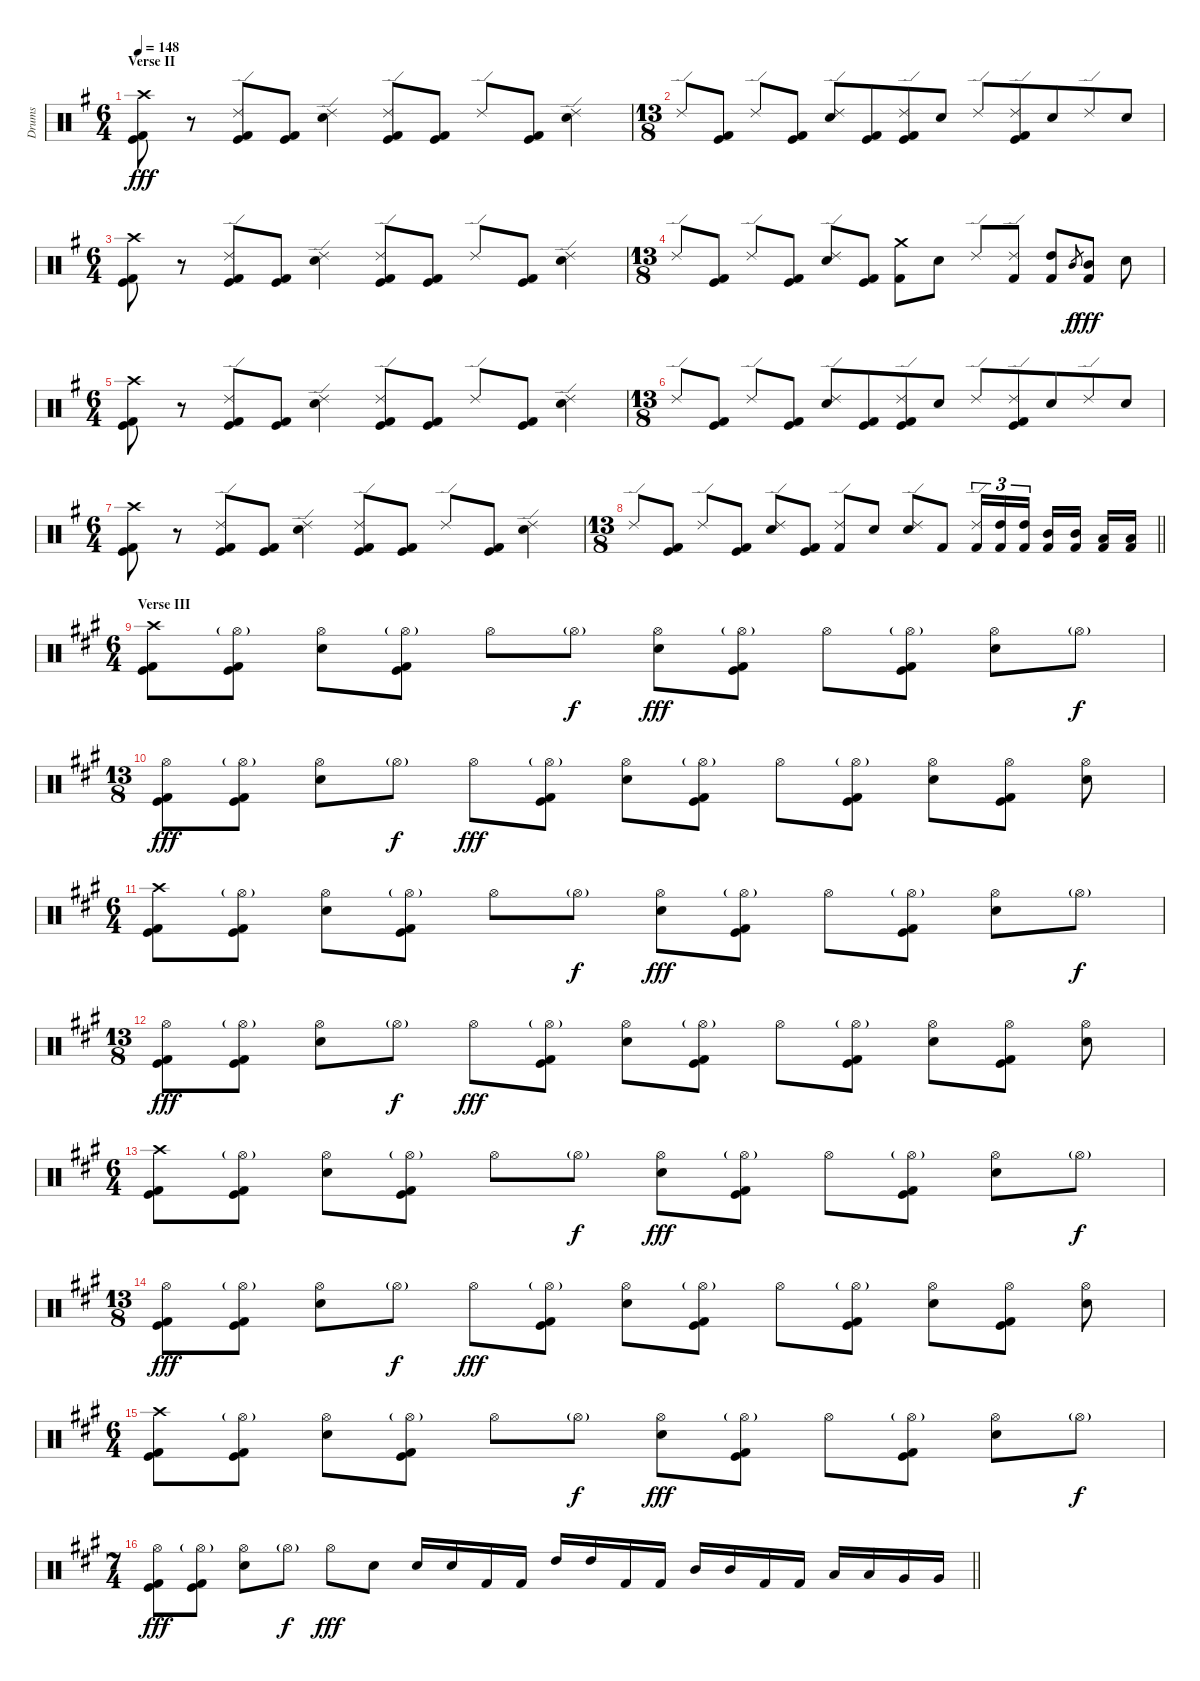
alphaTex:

\track ("Drums" "Drums") {instrument percussion}
\staff {score}
\articulation defaults
\ts (6 4)
\section ("" "Verse II")
\tempo 148
\clef neutral
\ks g
("Crash high (hit)" "Kick (hit)" "Kick (hit) 2").8{dy fff} r.8 ("Ride (edge) 2" "Kick (hit)" "Kick (hit) 2").8 ("Kick (hit)" "Kick (hit) 2").8 ("Ride (edge) 2" "Electric Snare (hit)").4 ("Ride (edge) 2" "Kick (hit)" "Kick (hit) 2").8 ("Kick (hit)" "Kick (hit) 2").8 "Ride (edge) 2".8 ("Kick (hit)" "Kick (hit) 2").8 ("Ride (edge) 2" "Electric Snare (hit)").4 |
\ts (13 8)
"Ride (edge) 2".8 ("Kick (hit)" "Kick (hit) 2").8 "Ride (edge) 2".8 ("Kick (hit)" "Kick (hit) 2").8 ("Ride (edge) 2" "Electric Snare (hit)").8 ("Kick (hit)" "Kick (hit) 2").8{beam merge} ("Ride (edge) 2" "Kick (hit)" "Kick (hit) 2").8{beam merge} "Electric Snare (hit)".8 "Ride (edge) 2".8{beam merge} ("Ride (edge) 2" "Kick (hit)" "Kick (hit) 2").8{beam merge} "Electric Snare (hit)".8{beam merge} "Ride (edge) 2".8{beam merge} "Electric Snare (hit)".8 |
\ts (6 4)
("Crash high (hit)" "Kick (hit)" "Kick (hit) 2").8 r.8 ("Ride (edge) 2" "Kick (hit)" "Kick (hit) 2").8 ("Kick (hit)" "Kick (hit) 2").8 ("Ride (edge) 2" "Electric Snare (hit)").4 ("Ride (edge) 2" "Kick (hit)" "Kick (hit) 2").8 ("Kick (hit)" "Kick (hit) 2").8 "Ride (edge) 2".8 ("Kick (hit)" "Kick (hit) 2").8 ("Ride (edge) 2" "Electric Snare (hit)").4 |
\ts (13 8)
"Ride (edge) 2".8 ("Kick (hit)" "Kick (hit) 2").8 "Ride (edge) 2".8 ("Kick (hit)" "Kick (hit) 2").8 ("Ride (edge) 2" "Electric Snare (hit)").8 ("Kick (hit)" "Kick (hit) 2").8 ("Crash medium (hit)" "Kick (hit) 2").8 "Electric Snare (hit)".8 "Ride (edge) 2".8 ("Ride (edge) 2" "Kick (hit) 2").8 ("High Tom (hit)" "Kick (hit) 2").8 "Mid Tom (hit)".8{gr dy f} ("Mid Tom (hit)" "Kick (hit) 2").8{dy fff} "Electric Snare (hit)".8 |
\ts (6 4)
("Crash high (hit)" "Kick (hit)" "Kick (hit) 2").8 r.8 ("Ride (edge) 2" "Kick (hit)" "Kick (hit) 2").8 ("Kick (hit)" "Kick (hit) 2").8 ("Ride (edge) 2" "Electric Snare (hit)").4 ("Ride (edge) 2" "Kick (hit)" "Kick (hit) 2").8 ("Kick (hit)" "Kick (hit) 2").8 "Ride (edge) 2".8 ("Kick (hit)" "Kick (hit) 2").8 ("Ride (edge) 2" "Electric Snare (hit)").4 |
\ts (13 8)
"Ride (edge) 2".8 ("Kick (hit)" "Kick (hit) 2").8 "Ride (edge) 2".8 ("Kick (hit)" "Kick (hit) 2").8 ("Ride (edge) 2" "Electric Snare (hit)").8 ("Kick (hit)" "Kick (hit) 2").8{beam merge} ("Ride (edge) 2" "Kick (hit)" "Kick (hit) 2").8{beam merge} "Electric Snare (hit)".8 "Ride (edge) 2".8{beam merge} ("Ride (edge) 2" "Kick (hit)" "Kick (hit) 2").8{beam merge} "Electric Snare (hit)".8{beam merge} "Ride (edge) 2".8{beam merge} "Electric Snare (hit)".8 |
\ts (6 4)
("Crash high (hit)" "Kick (hit)" "Kick (hit) 2").8 r.8 ("Ride (edge) 2" "Kick (hit)" "Kick (hit) 2").8 ("Kick (hit)" "Kick (hit) 2").8 ("Ride (edge) 2" "Electric Snare (hit)").4 ("Ride (edge) 2" "Kick (hit)" "Kick (hit) 2").8 ("Kick (hit)" "Kick (hit) 2").8 "Ride (edge) 2".8 ("Kick (hit)" "Kick (hit) 2").8 ("Ride (edge) 2" "Electric Snare (hit)").4 |
\ts (13 8)
\barLineRight lightlight "Ride (edge) 2".8
("Kick (hit)" "Kick (hit) 2").8 "Ride (edge) 2".8 ("Kick (hit)" "Kick (hit) 2").8 ("Ride (edge) 2" "Electric Snare (hit)").8 ("Kick (hit)" "Kick (hit) 2").8 ("Ride (edge) 2" "Kick (hit) 2").8 "Electric Snare (hit)".8 ("Ride (edge) 2" "Electric Snare (hit)").8 "Kick (hit) 2".8 ("Ride (edge) 2" "Kick (hit) 2").16{tu (3 2)} ("High Tom (hit)" "Kick (hit) 2").16{tu (3 2)} ("High Tom (hit)" "Kick (hit) 2").16{tu (3 2)} ("Mid Tom (hit)" "Kick (hit) 2").16 ("Mid Tom (hit)" "Kick (hit) 2").16 ("Low Tom (hit)" "Kick (hit) 2").16 ("Low Tom (hit)" "Kick (hit) 2").16 |
\ts (6 4)
\section ("" "Verse III")
\ks a
("Crash high (hit)" "Kick (hit)" "Kick (hit) 2").8 ("Hi-Hat (open)"{g} "Kick (hit)" "Kick (hit) 2").8 ("Hi-Hat (open)" "Electric Snare (hit)").8 ("Hi-Hat (open)"{g} "Kick (hit)" "Kick (hit) 2").8 "Hi-Hat (open)".8 "Hi-Hat (open)"{g}.8{dy f} ("Hi-Hat (open)" "Electric Snare (hit)").8{dy fff} ("Hi-Hat (open)"{g} "Kick (hit)" "Kick (hit) 2").8 "Hi-Hat (open)".8 ("Hi-Hat (open)"{g} "Kick (hit)" "Kick (hit) 2").8 ("Hi-Hat (open)" "Electric Snare (hit)").8 "Hi-Hat (open)"{g}.8{dy f} |
\ts (13 8)
("Hi-Hat (open)" "Kick (hit)" "Kick (hit) 2").8{dy fff} ("Hi-Hat (open)"{g} "Kick (hit)" "Kick (hit) 2").8 ("Hi-Hat (open)" "Electric Snare (hit)").8 "Hi-Hat (open)"{g}.8{dy f} "Hi-Hat (open)".8{dy fff} ("Hi-Hat (open)"{g} "Kick (hit)" "Kick (hit) 2").8 ("Hi-Hat (open)" "Electric Snare (hit)").8 ("Hi-Hat (open)"{g} "Kick (hit)" "Kick (hit) 2").8 "Hi-Hat (open)".8 ("Hi-Hat (open)"{g} "Kick (hit)" "Kick (hit) 2").8 ("Hi-Hat (open)" "Electric Snare (hit)").8 ("Hi-Hat (open)" "Kick (hit)" "Kick (hit) 2").8 ("Hi-Hat (open)" "Electric Snare (hit)").8 |
\ts (6 4)
("Crash high (hit)" "Kick (hit)" "Kick (hit) 2").8 ("Hi-Hat (open)"{g} "Kick (hit)" "Kick (hit) 2").8 ("Hi-Hat (open)" "Electric Snare (hit)").8 ("Hi-Hat (open)"{g} "Kick (hit)" "Kick (hit) 2").8 "Hi-Hat (open)".8 "Hi-Hat (open)"{g}.8{dy f} ("Hi-Hat (open)" "Electric Snare (hit)").8{dy fff} ("Hi-Hat (open)"{g} "Kick (hit)" "Kick (hit) 2").8 "Hi-Hat (open)".8 ("Hi-Hat (open)"{g} "Kick (hit)" "Kick (hit) 2").8 ("Hi-Hat (open)" "Electric Snare (hit)").8 "Hi-Hat (open)"{g}.8{dy f} |
\ts (13 8)
("Hi-Hat (open)" "Kick (hit)" "Kick (hit) 2").8{dy fff} ("Hi-Hat (open)"{g} "Kick (hit)" "Kick (hit) 2").8 ("Hi-Hat (open)" "Electric Snare (hit)").8 "Hi-Hat (open)"{g}.8{dy f} "Hi-Hat (open)".8{dy fff} ("Hi-Hat (open)"{g} "Kick (hit)" "Kick (hit) 2").8 ("Hi-Hat (open)" "Electric Snare (hit)").8 ("Hi-Hat (open)"{g} "Kick (hit)" "Kick (hit) 2").8 "Hi-Hat (open)".8 ("Hi-Hat (open)"{g} "Kick (hit)" "Kick (hit) 2").8 ("Hi-Hat (open)" "Electric Snare (hit)").8 ("Hi-Hat (open)" "Kick (hit)" "Kick (hit) 2").8 ("Hi-Hat (open)" "Electric Snare (hit)").8 |
\ts (6 4)
("Crash high (hit)" "Kick (hit)" "Kick (hit) 2").8 ("Hi-Hat (open)"{g} "Kick (hit)" "Kick (hit) 2").8 ("Hi-Hat (open)" "Electric Snare (hit)").8 ("Hi-Hat (open)"{g} "Kick (hit)" "Kick (hit) 2").8 "Hi-Hat (open)".8 "Hi-Hat (open)"{g}.8{dy f} ("Hi-Hat (open)" "Electric Snare (hit)").8{dy fff} ("Hi-Hat (open)"{g} "Kick (hit)" "Kick (hit) 2").8 "Hi-Hat (open)".8 ("Hi-Hat (open)"{g} "Kick (hit)" "Kick (hit) 2").8 ("Hi-Hat (open)" "Electric Snare (hit)").8 "Hi-Hat (open)"{g}.8{dy f} |
\ts (13 8)
("Hi-Hat (open)" "Kick (hit)" "Kick (hit) 2").8{dy fff} ("Hi-Hat (open)"{g} "Kick (hit)" "Kick (hit) 2").8 ("Hi-Hat (open)" "Electric Snare (hit)").8 "Hi-Hat (open)"{g}.8{dy f} "Hi-Hat (open)".8{dy fff} ("Hi-Hat (open)"{g} "Kick (hit)" "Kick (hit) 2").8 ("Hi-Hat (open)" "Electric Snare (hit)").8 ("Hi-Hat (open)"{g} "Kick (hit)" "Kick (hit) 2").8 "Hi-Hat (open)".8 ("Hi-Hat (open)"{g} "Kick (hit)" "Kick (hit) 2").8 ("Hi-Hat (open)" "Electric Snare (hit)").8 ("Hi-Hat (open)" "Kick (hit)" "Kick (hit) 2").8 ("Hi-Hat (open)" "Electric Snare (hit)").8 |
\ts (6 4)
("Crash high (hit)" "Kick (hit)" "Kick (hit) 2").8 ("Hi-Hat (open)"{g} "Kick (hit)" "Kick (hit) 2").8 ("Hi-Hat (open)" "Electric Snare (hit)").8 ("Hi-Hat (open)"{g} "Kick (hit)" "Kick (hit) 2").8 "Hi-Hat (open)".8 "Hi-Hat (open)"{g}.8{dy f} ("Hi-Hat (open)" "Electric Snare (hit)").8{dy fff} ("Hi-Hat (open)"{g} "Kick (hit)" "Kick (hit) 2").8 "Hi-Hat (open)".8 ("Hi-Hat (open)"{g} "Kick (hit)" "Kick (hit) 2").8 ("Hi-Hat (open)" "Electric Snare (hit)").8 "Hi-Hat (open)"{g}.8{dy f} |
\ts (7 4)
\barLineRight lightlight
("Hi-Hat (open)" "Kick (hit)" "Kick (hit) 2").8{dy fff} ("Hi-Hat (open)"{g} "Kick (hit)" "Kick (hit) 2").8 ("Hi-Hat (open)" "Electric Snare (hit)").8 "Hi-Hat (open)"{g}.8{dy f} "Hi-Hat (open)".8{dy fff} "Electric Snare (hit)".8 "Electric Snare (hit)".16 "Electric Snare (hit)".16 "Kick (hit) 2".16 "Kick (hit) 2".16 "High Tom (hit)".16 "High Tom (hit)".16 "Kick (hit) 2".16 "Kick (hit) 2".16 "Mid Tom (hit)".16 "Mid Tom (hit)".16 "Kick (hit) 2".16 "Kick (hit) 2".16 "Low Tom (hit)".16 "Low Tom (hit)".16 "Very Low Tom (hit)".16 "Very Low Tom (hit)".16
